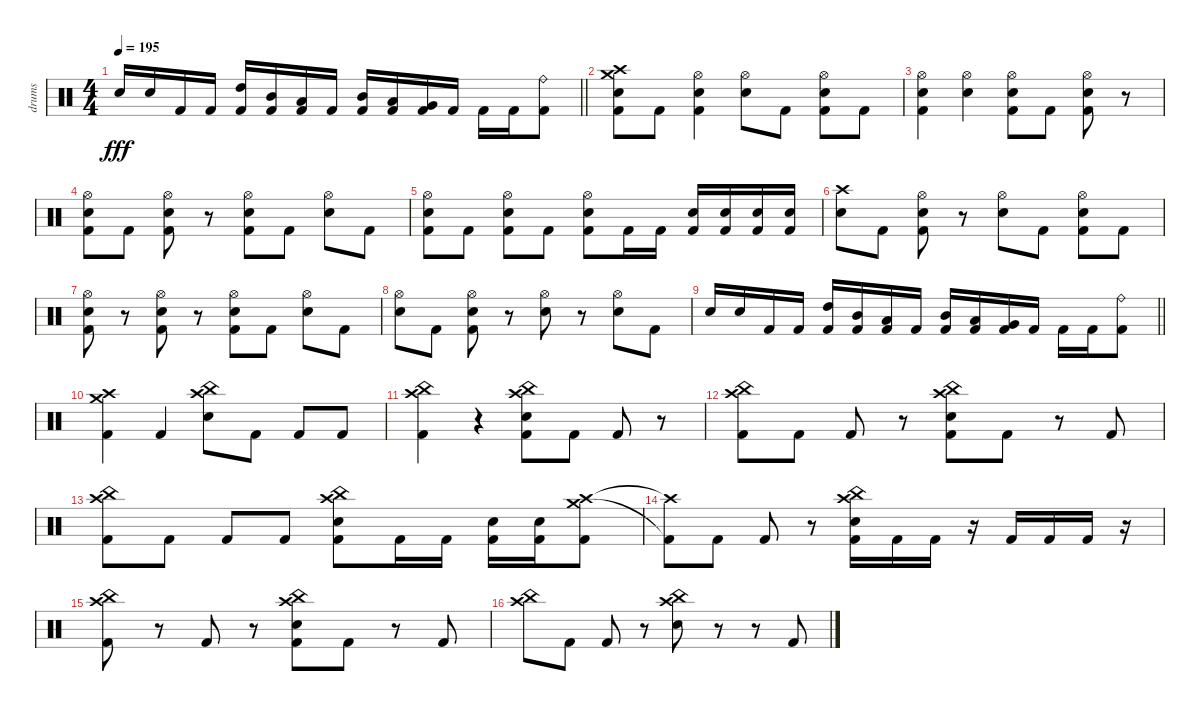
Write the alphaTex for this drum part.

\track ("drums" "drums") {instrument percussion}
\staff {score}
\articulation defaults
\ts (4 4)
\tempo 195
\clef neutral
\barLineRight lightlight
\ks c "Electric Snare (hit)".16{dy fff} "Electric Snare (hit)".16 "Kick (hit) 2".16 "Kick (hit) 2".16
("High Tom (hit)" "Kick (hit) 2").16 ("Mid Tom (hit)" "Kick (hit) 2").16 ("Low Tom (hit)" "Kick (hit) 2").16 "Kick (hit) 2".16 ("Mid Tom (hit)" "Kick (hit) 2").16 ("Low Tom (hit)" "Kick (hit) 2").16 ("Very Low Tom (hit)" "Kick (hit) 2").16 "Kick (hit) 2".16 "Kick (hit) 2".16 "Kick (hit) 2".16 ("Ride (bell)" "Kick (hit) 2").8 |
\section ("" "")
("Crash high (hit)" "Crash medium (hit)" "Electric Snare (hit)" "Kick (hit) 2").8 "Kick (hit) 2".8 ("Hi-Hat (open)" "Electric Snare (hit)" "Kick (hit) 2").4 ("Hi-Hat (open)" "Electric Snare (hit)").8 "Kick (hit) 2".8 ("Hi-Hat (open)" "Electric Snare (hit)" "Kick (hit) 2").8 "Kick (hit) 2".8 |
("Hi-Hat (open)" "Electric Snare (hit)" "Kick (hit) 2").4 ("Hi-Hat (open)" "Electric Snare (hit)").4 ("Hi-Hat (open)" "Electric Snare (hit)" "Kick (hit) 2").8 "Kick (hit) 2".8 ("Hi-Hat (open)" "Electric Snare (hit)" "Kick (hit) 2").8 r.8 |
("Hi-Hat (open)" "Electric Snare (hit)" "Kick (hit) 2").8 "Kick (hit) 2".8 ("Hi-Hat (open)" "Electric Snare (hit)" "Kick (hit) 2").8 r.8 ("Hi-Hat (open)" "Electric Snare (hit)" "Kick (hit) 2").8 "Kick (hit) 2".8 ("Hi-Hat (open)" "Electric Snare (hit)").8 "Kick (hit) 2".8 |
("Hi-Hat (open)" "Electric Snare (hit)" "Kick (hit) 2").8 "Kick (hit) 2".8 ("Hi-Hat (open)" "Electric Snare (hit)" "Kick (hit) 2").8 "Kick (hit) 2".8 ("Hi-Hat (open)" "Electric Snare (hit)" "Kick (hit) 2").8 "Kick (hit) 2".16 "Kick (hit) 2".16 ("Electric Snare (hit)" "Kick (hit) 2").16 ("Electric Snare (hit)" "Kick (hit) 2").16 ("Electric Snare (hit)" "Kick (hit) 2").16 ("Electric Snare (hit)" "Kick (hit) 2").16 |
("Crash high (hit)" "Electric Snare (hit)").8 "Kick (hit) 2".8 ("Hi-Hat (open)" "Electric Snare (hit)" "Kick (hit) 2").8 r.8 ("Hi-Hat (open)" "Electric Snare (hit)").8 "Kick (hit) 2".8 ("Hi-Hat (open)" "Electric Snare (hit)" "Kick (hit) 2").8 "Kick (hit) 2".8 |
("Hi-Hat (open)" "Electric Snare (hit)" "Kick (hit) 2").8 r.8 ("Hi-Hat (open)" "Electric Snare (hit)" "Kick (hit) 2").8 r.8 ("Hi-Hat (open)" "Electric Snare (hit)" "Kick (hit) 2").8 "Kick (hit) 2".8 ("Hi-Hat (open)" "Electric Snare (hit)").8 "Kick (hit) 2".8 |
("Hi-Hat (open)" "Electric Snare (hit)").8 "Kick (hit) 2".8 ("Hi-Hat (open)" "Electric Snare (hit)" "Kick (hit) 2").8 r.8 ("Hi-Hat (open)" "Electric Snare (hit)").8 r.8 ("Hi-Hat (open)" "Electric Snare (hit)").8 "Kick (hit) 2".8 |
\barLineRight lightlight "Electric Snare (hit)".16 "Electric Snare (hit)".16 "Kick (hit) 2".16 "Kick (hit) 2".16
("High Tom (hit)" "Kick (hit) 2").16 ("Mid Tom (hit)" "Kick (hit) 2").16 ("Low Tom (hit)" "Kick (hit) 2").16 "Kick (hit) 2".16 ("Mid Tom (hit)" "Kick (hit) 2").16 ("Low Tom (hit)" "Kick (hit) 2").16 ("Very Low Tom (hit)" "Kick (hit) 2").16 "Kick (hit) 2".16 "Kick (hit) 2".16 "Kick (hit) 2".16 ("Ride (bell)" "Kick (hit) 2").8 |
\section ("" "")
("Crash high (hit)" "Crash medium (hit)" "Kick (hit) 2").4 "Kick (hit) 2".4 ("China (hit)" "Crash high (hit)" "Electric Snare (hit)").8 "Kick (hit) 2".8 "Kick (hit) 2".8 "Kick (hit) 2".8 |
("China (hit)" "Crash high (hit)" "Kick (hit) 2").4 r.4 ("China (hit)" "Crash high (hit)" "Electric Snare (hit)" "Kick (hit) 2").8 "Kick (hit) 2".8 "Kick (hit) 2".8 r.8 |
("China (hit)" "Crash high (hit)" "Kick (hit) 2").8 "Kick (hit) 2".8 "Kick (hit) 2".8 r.8 ("China (hit)" "Crash high (hit)" "Electric Snare (hit)" "Kick (hit) 2").8 "Kick (hit) 2".8 r.8 "Kick (hit) 2".8 |
("China (hit)" "Crash high (hit)" "Kick (hit) 2").8 "Kick (hit) 2".8 "Kick (hit) 2".8 "Kick (hit) 2".8 ("China (hit)" "Crash high (hit)" "Electric Snare (hit)" "Kick (hit) 2").8 "Kick (hit) 2".16 "Kick (hit) 2".16 ("Electric Snare (hit)" "Kick (hit) 2").16 ("Electric Snare (hit)" "Kick (hit) 2").16 ("Crash high (hit)" "Crash medium (hit)" "Kick (hit) 2").8 |
("Crash high (hit)"{t} "Kick (hit) 2"{t}).8 "Kick (hit) 2".8 "Kick (hit) 2".8 r.8 ("China (hit)" "Crash high (hit)" "Electric Snare (hit)" "Kick (hit) 2").16 "Kick (hit) 2".16 "Kick (hit) 2".16 r.16 "Kick (hit) 2".16 "Kick (hit) 2".16 "Kick (hit) 2".16 r.16 |
("China (hit)" "Crash high (hit)" "Kick (hit) 2").8 r.8 "Kick (hit) 2".8 r.8 ("China (hit)" "Crash high (hit)" "Electric Snare (hit)" "Kick (hit) 2").8 "Kick (hit) 2".8 r.8 "Kick (hit) 2".8 |
("China (hit)" "Crash high (hit)").8 "Kick (hit) 2".8 "Kick (hit) 2".8 r.8 ("China (hit)" "Crash high (hit)" "Electric Snare (hit)").8 r.8 r.8 "Kick (hit) 2".8
